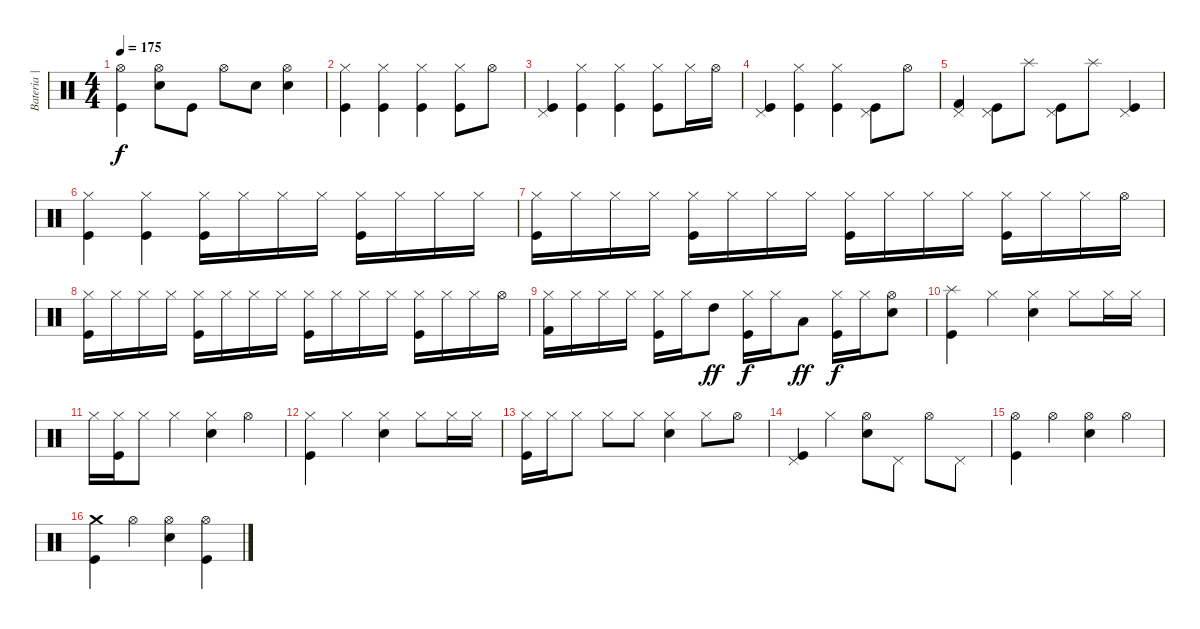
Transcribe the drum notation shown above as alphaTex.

\track ("Bateria | Fabinho" "Bateria | ") {instrument percussion}
\staff {score}
\articulation defaults
\ts (4 4)
\tempo 175
\clef neutral
\ks c
("Hi-Hat (open)" "Kick (hit)").4{dy f} ("Hi-Hat (open)" "Snare (hit) 2").8 "Kick (hit)".8 "Hi-Hat (open)".8 "Snare (hit) 2".8 ("Hi-Hat (open)" "Snare (hit) 2").4 |
("Hi-Hat (closed)" "Kick (hit)").4 ("Hi-Hat (closed)" "Kick (hit)").4 ("Hi-Hat (closed)" "Kick (hit)").4 ("Hi-Hat (closed)" "Kick (hit)").8 "Hi-Hat (open)".8 |
("Pedal Hi-Hat (hit)" "Kick (hit)").4 ("Hi-Hat (closed)" "Kick (hit)").4 ("Hi-Hat (closed)" "Kick (hit)").4 ("Hi-Hat (closed)" "Kick (hit)").8 "Hi-Hat (closed)".16 "Hi-Hat (open)".16 |
("Pedal Hi-Hat (hit)" "Kick (hit)").4 ("Hi-Hat (closed)" "Kick (hit)").4 ("Hi-Hat (closed)" "Kick (hit)").4 ("Pedal Hi-Hat (hit)" "Kick (hit)").8 "Hi-Hat (open)".8 |
("Pedal Hi-Hat (hit)" "Kick (hit) 2").4 ("Pedal Hi-Hat (hit)" "Kick (hit)").8 "Splash (hit)".8 ("Pedal Hi-Hat (hit)" "Kick (hit)").8 "Splash (hit)".8 ("Pedal Hi-Hat (hit)" "Kick (hit)").4 |
("Hi-Hat (closed)" "Kick (hit)").4 ("Hi-Hat (closed)" "Kick (hit)").4 ("Hi-Hat (closed)" "Kick (hit)").16 "Hi-Hat (closed)".16 "Hi-Hat (closed)".16 "Hi-Hat (closed)".16 ("Hi-Hat (closed)" "Kick (hit)").16 "Hi-Hat (closed)".16 "Hi-Hat (closed)".16 "Hi-Hat (closed)".16 |
("Hi-Hat (closed)" "Kick (hit)").16 "Hi-Hat (closed)".16 "Hi-Hat (closed)".16 "Hi-Hat (closed)".16 ("Hi-Hat (closed)" "Kick (hit)").16 "Hi-Hat (closed)".16 "Hi-Hat (closed)".16 "Hi-Hat (closed)".16 ("Hi-Hat (closed)" "Kick (hit)").16 "Hi-Hat (closed)".16 "Hi-Hat (closed)".16 "Hi-Hat (closed)".16 ("Hi-Hat (closed)" "Kick (hit)").16 "Hi-Hat (closed)".16 "Hi-Hat (closed)".16 "Hi-Hat (open)".16 |
("Hi-Hat (closed)" "Kick (hit)").16 "Hi-Hat (closed)".16 "Hi-Hat (closed)".16 "Hi-Hat (closed)".16 ("Hi-Hat (closed)" "Kick (hit)").16 "Hi-Hat (closed)".16 "Hi-Hat (closed)".16 "Hi-Hat (closed)".16 ("Hi-Hat (closed)" "Kick (hit)").16 "Hi-Hat (closed)".16 "Hi-Hat (closed)".16 "Hi-Hat (closed)".16 ("Hi-Hat (closed)" "Kick (hit)").16 "Hi-Hat (closed)".16 "Hi-Hat (closed)".16 "Hi-Hat (open)".16 |
("Hi-Hat (closed)" "Kick (hit) 2").16 "Hi-Hat (closed)".16 "Hi-Hat (closed)".16 "Hi-Hat (closed)".16 ("Hi-Hat (closed)" "Kick (hit)").16 "Hi-Hat (closed)".16 "High Tom (hit)".8{dy ff} ("Hi-Hat (closed)" "Kick (hit)").16{dy f} "Hi-Hat (closed)".16 "Low Tom (hit)".8{dy ff} ("Hi-Hat (closed)" "Kick (hit)").16{dy f} "Hi-Hat (closed)".16 ("Hi-Hat (open)" "Snare (hit) 2").8 |
("Splash (hit)" "Kick (hit)").4 "Hi-Hat (closed)".4 ("Hi-Hat (closed)" "Snare (hit) 2").4 "Hi-Hat (closed)".8 "Hi-Hat (closed)".16 "Hi-Hat (closed)".16 |
"Hi-Hat (closed)".16 ("Hi-Hat (closed)" "Kick (hit)").16 "Hi-Hat (closed)".8 "Hi-Hat (closed)".4 ("Hi-Hat (closed)" "Snare (hit) 2").4 "Hi-Hat (open)".4 |
("Hi-Hat (closed)" "Kick (hit)").4 "Hi-Hat (closed)".4 ("Hi-Hat (closed)" "Snare (hit) 2").4 "Hi-Hat (closed)".8 "Hi-Hat (closed)".16 "Hi-Hat (closed)".16 |
("Hi-Hat (closed)" "Kick (hit)").16 "Hi-Hat (closed)".16 "Hi-Hat (closed)".8 "Hi-Hat (closed)".8 "Hi-Hat (closed)".8 ("Hi-Hat (closed)" "Snare (hit) 2").4 "Hi-Hat (closed)".8 "Hi-Hat (open)".8 |
("Pedal Hi-Hat (hit)" "Kick (hit)").4 "Hi-Hat (closed)".4 ("Hi-Hat (open)" "Snare (hit) 2").8 "Pedal Hi-Hat (hit)".8 "Hi-Hat (open)".8 "Pedal Hi-Hat (hit)".8 |
("Hi-Hat (open)" "Kick (hit)").4 "Hi-Hat (open)".4 ("Hi-Hat (open)" "Snare (hit) 2").4 "Hi-Hat (open)".4 |
("Crash medium (hit)" "Kick (hit)").4 "Hi-Hat (open)".4 ("Hi-Hat (open)" "Snare (hit) 2").4 ("Hi-Hat (open)" "Kick (hit)").4
